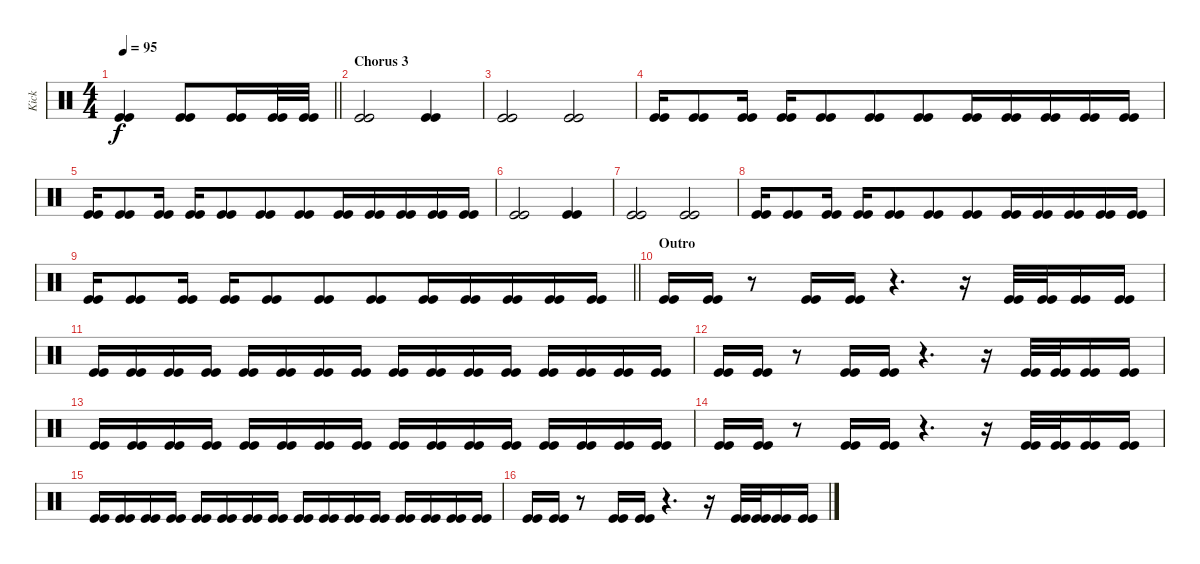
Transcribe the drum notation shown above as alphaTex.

\track ("Kick" "Kick") {instrument percussion}
\staff {score}
\articulation defaults
\ts (4 4)
\tempo 95
\clef neutral
\barLineRight lightlight
\ks c
("Kick (hit)" "Kick (hit)").4{dy f} ("Kick (hit)" "Kick (hit)").8 ("Kick (hit)" "Kick (hit)").16 ("Kick (hit)" "Kick (hit)").32{beam merge} ("Kick (hit)" "Kick (hit)").32 |
\section ("" "Chorus 3")
("Kick (hit)" "Kick (hit)").2 ("Kick (hit)" "Kick (hit)").4 |
("Kick (hit)" "Kick (hit)").2 ("Kick (hit)" "Kick (hit)").2 |
("Kick (hit)" "Kick (hit)").16 ("Kick (hit)" "Kick (hit)").8 ("Kick (hit)" "Kick (hit)").16 ("Kick (hit)" "Kick (hit)").16 ("Kick (hit)" "Kick (hit)").8 ("Kick (hit)" "Kick (hit)").8{beam merge} ("Kick (hit)" "Kick (hit)").8 ("Kick (hit)" "Kick (hit)").16{beam merge} ("Kick (hit)" "Kick (hit)").16{beam merge} ("Kick (hit)" "Kick (hit)").16 ("Kick (hit)" "Kick (hit)").16 ("Kick (hit)" "Kick (hit)").16 |
("Kick (hit)" "Kick (hit)").16 ("Kick (hit)" "Kick (hit)").8 ("Kick (hit)" "Kick (hit)").16 ("Kick (hit)" "Kick (hit)").16 ("Kick (hit)" "Kick (hit)").8 ("Kick (hit)" "Kick (hit)").8{beam merge} ("Kick (hit)" "Kick (hit)").8 ("Kick (hit)" "Kick (hit)").16{beam merge} ("Kick (hit)" "Kick (hit)").16{beam merge} ("Kick (hit)" "Kick (hit)").16 ("Kick (hit)" "Kick (hit)").16 ("Kick (hit)" "Kick (hit)").16 |
("Kick (hit)" "Kick (hit)").2 ("Kick (hit)" "Kick (hit)").4 |
("Kick (hit)" "Kick (hit)").2 ("Kick (hit)" "Kick (hit)").2 |
("Kick (hit)" "Kick (hit)").16 ("Kick (hit)" "Kick (hit)").8 ("Kick (hit)" "Kick (hit)").16 ("Kick (hit)" "Kick (hit)").16 ("Kick (hit)" "Kick (hit)").8 ("Kick (hit)" "Kick (hit)").8{beam merge} ("Kick (hit)" "Kick (hit)").8 ("Kick (hit)" "Kick (hit)").16{beam merge} ("Kick (hit)" "Kick (hit)").16{beam merge} ("Kick (hit)" "Kick (hit)").16 ("Kick (hit)" "Kick (hit)").16 ("Kick (hit)" "Kick (hit)").16 |
\barLineRight lightlight
("Kick (hit)" "Kick (hit)").16 ("Kick (hit)" "Kick (hit)").8 ("Kick (hit)" "Kick (hit)").16 ("Kick (hit)" "Kick (hit)").16 ("Kick (hit)" "Kick (hit)").8 ("Kick (hit)" "Kick (hit)").8{beam merge} ("Kick (hit)" "Kick (hit)").8 ("Kick (hit)" "Kick (hit)").16{beam merge} ("Kick (hit)" "Kick (hit)").16{beam merge} ("Kick (hit)" "Kick (hit)").16 ("Kick (hit)" "Kick (hit)").16 ("Kick (hit)" "Kick (hit)").16 |
\section ("" "Outro")
("Kick (hit)" "Kick (hit)").16 ("Kick (hit)" "Kick (hit)").16 r.8{beam merge} ("Kick (hit)" "Kick (hit)").16 ("Kick (hit)" "Kick (hit)").16 r.4{d} r.16 ("Kick (hit)" "Kick (hit)").32{beam merge} ("Kick (hit)" "Kick (hit)").32{beam merge} ("Kick (hit)" "Kick (hit)").16 ("Kick (hit)" "Kick (hit)").16 |
("Kick (hit)" "Kick (hit)").16{beam merge} ("Kick (hit)" "Kick (hit)").16 ("Kick (hit)" "Kick (hit)").16 ("Kick (hit)" "Kick (hit)").16 ("Kick (hit)" "Kick (hit)").16 ("Kick (hit)" "Kick (hit)").16 ("Kick (hit)" "Kick (hit)").16 ("Kick (hit)" "Kick (hit)").16 ("Kick (hit)" "Kick (hit)").16 ("Kick (hit)" "Kick (hit)").16 ("Kick (hit)" "Kick (hit)").16 ("Kick (hit)" "Kick (hit)").16 ("Kick (hit)" "Kick (hit)").16 ("Kick (hit)" "Kick (hit)").16 ("Kick (hit)" "Kick (hit)").16 ("Kick (hit)" "Kick (hit)").16 |
("Kick (hit)" "Kick (hit)").16 ("Kick (hit)" "Kick (hit)").16 r.8{beam merge} ("Kick (hit)" "Kick (hit)").16 ("Kick (hit)" "Kick (hit)").16 r.4{d} r.16 ("Kick (hit)" "Kick (hit)").32{beam merge} ("Kick (hit)" "Kick (hit)").32{beam merge} ("Kick (hit)" "Kick (hit)").16 ("Kick (hit)" "Kick (hit)").16 |
("Kick (hit)" "Kick (hit)").16{beam merge} ("Kick (hit)" "Kick (hit)").16 ("Kick (hit)" "Kick (hit)").16 ("Kick (hit)" "Kick (hit)").16 ("Kick (hit)" "Kick (hit)").16 ("Kick (hit)" "Kick (hit)").16 ("Kick (hit)" "Kick (hit)").16 ("Kick (hit)" "Kick (hit)").16 ("Kick (hit)" "Kick (hit)").16 ("Kick (hit)" "Kick (hit)").16 ("Kick (hit)" "Kick (hit)").16 ("Kick (hit)" "Kick (hit)").16 ("Kick (hit)" "Kick (hit)").16 ("Kick (hit)" "Kick (hit)").16 ("Kick (hit)" "Kick (hit)").16{beam merge} ("Kick (hit)" "Kick (hit)").16 |
("Kick (hit)" "Kick (hit)").16 ("Kick (hit)" "Kick (hit)").16 r.8{beam merge} ("Kick (hit)" "Kick (hit)").16 ("Kick (hit)" "Kick (hit)").16 r.4{d} r.16 ("Kick (hit)" "Kick (hit)").32{beam merge} ("Kick (hit)" "Kick (hit)").32{beam merge} ("Kick (hit)" "Kick (hit)").16 ("Kick (hit)" "Kick (hit)").16 |
("Kick (hit)" "Kick (hit)").16{beam merge} ("Kick (hit)" "Kick (hit)").16 ("Kick (hit)" "Kick (hit)").16 ("Kick (hit)" "Kick (hit)").16 ("Kick (hit)" "Kick (hit)").16 ("Kick (hit)" "Kick (hit)").16 ("Kick (hit)" "Kick (hit)").16 ("Kick (hit)" "Kick (hit)").16 ("Kick (hit)" "Kick (hit)").16 ("Kick (hit)" "Kick (hit)").16 ("Kick (hit)" "Kick (hit)").16 ("Kick (hit)" "Kick (hit)").16 ("Kick (hit)" "Kick (hit)").16 ("Kick (hit)" "Kick (hit)").16 ("Kick (hit)" "Kick (hit)").16{beam merge} ("Kick (hit)" "Kick (hit)").16 |
("Kick (hit)" "Kick (hit)").16 ("Kick (hit)" "Kick (hit)").16 r.8{beam merge} ("Kick (hit)" "Kick (hit)").16 ("Kick (hit)" "Kick (hit)").16 r.4{d} r.16 ("Kick (hit)" "Kick (hit)").32{beam merge} ("Kick (hit)" "Kick (hit)").32{beam merge} ("Kick (hit)" "Kick (hit)").16 ("Kick (hit)" "Kick (hit)").16
